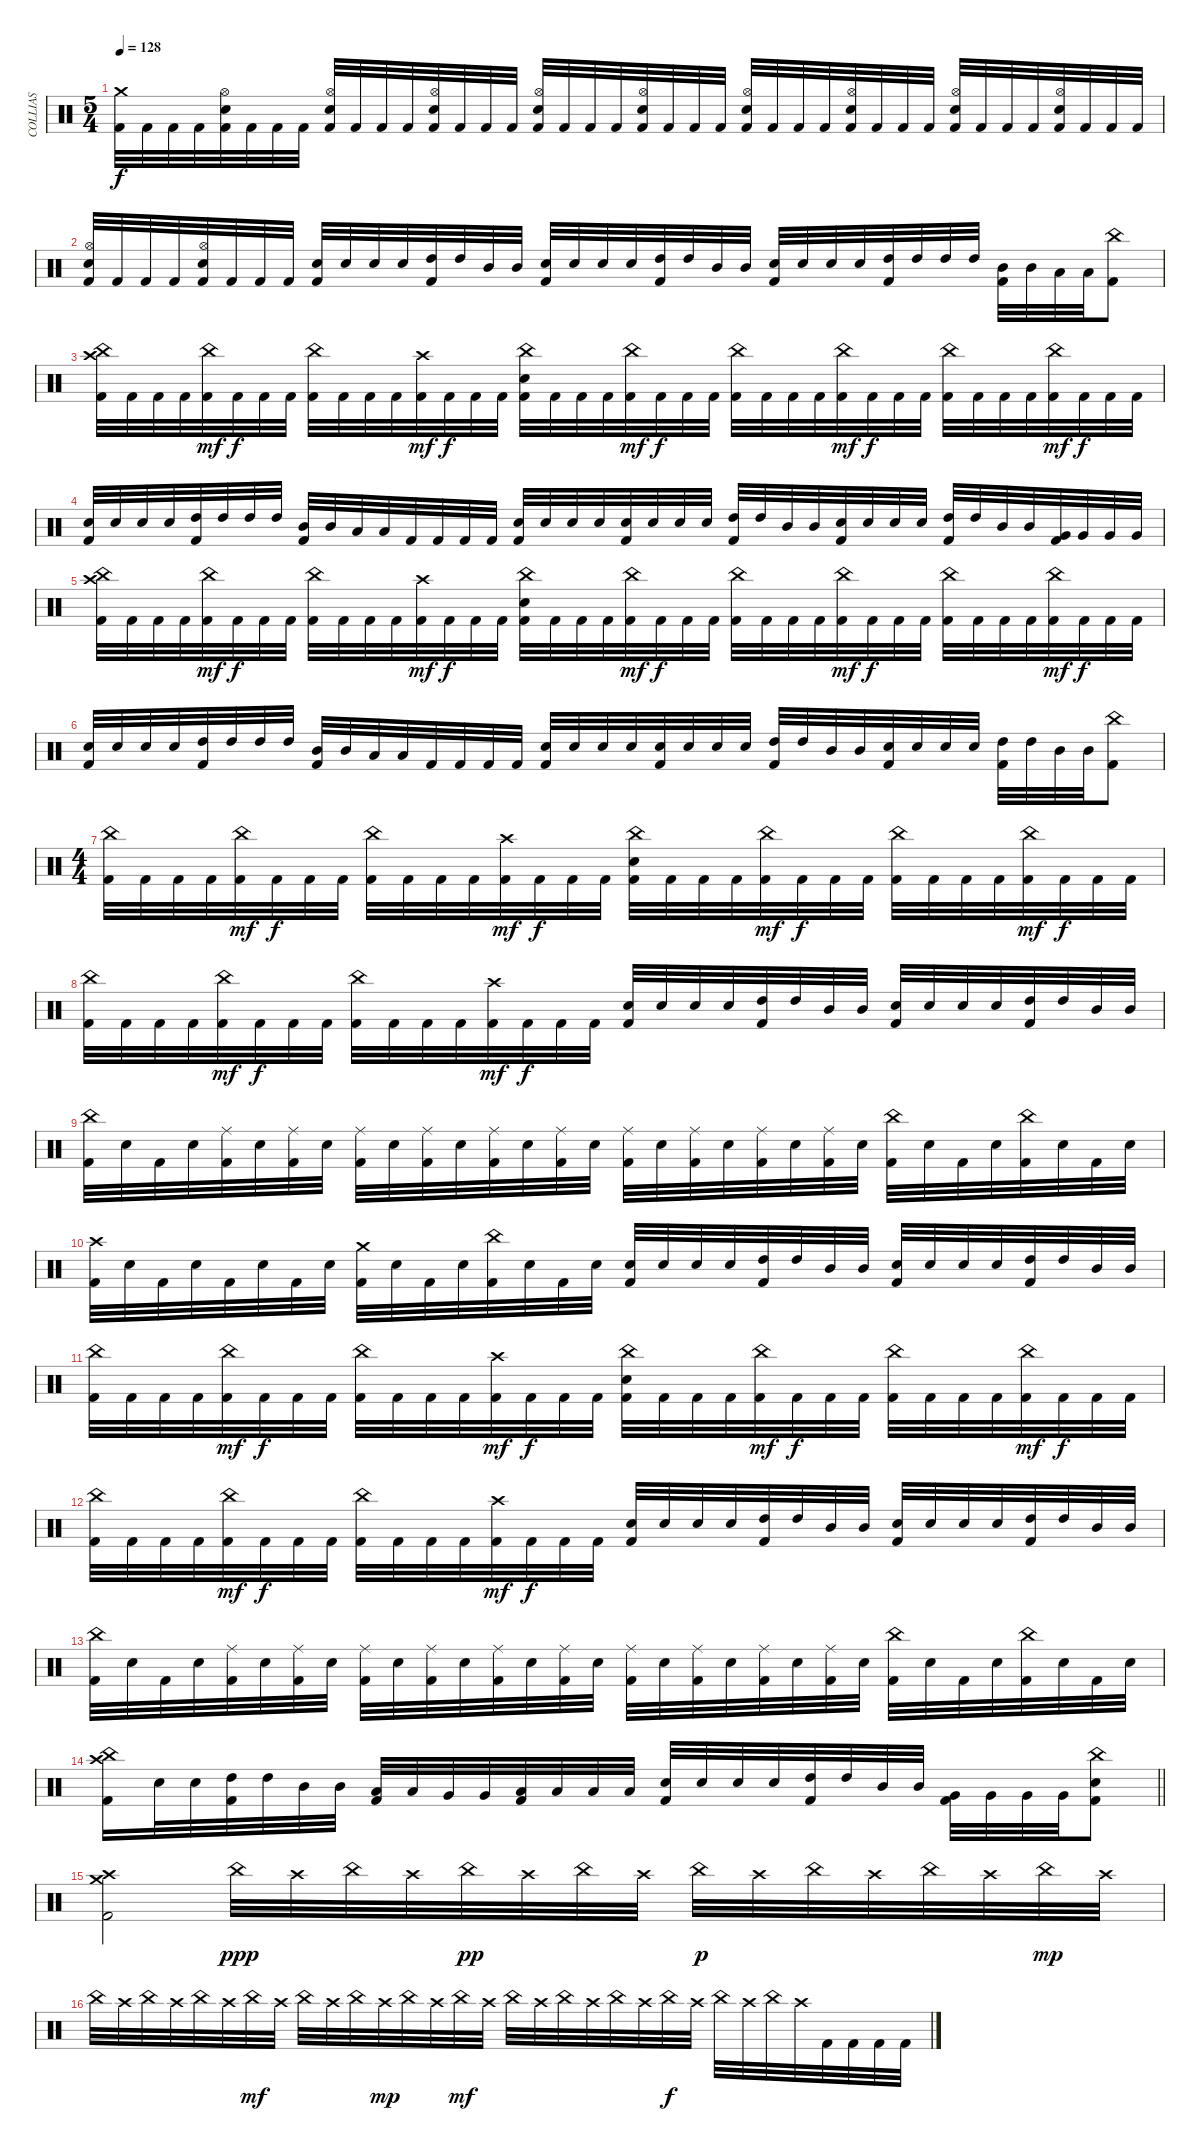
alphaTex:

\track ("COLLIAS" "COLLIAS") {instrument percussion}
\staff
\articulation defaults
\ts (5 4)
\tempo 128
\clef neutral
\ks c
("Crash medium (hit)" "Kick (hit) 2").32{dy f} "Kick (hit) 2".32 "Kick (hit) 2".32 "Kick (hit) 2".32 ("Hi-Hat (open)" "Electric Snare (hit)" "Kick (hit) 2").32 "Kick (hit) 2".32 "Kick (hit) 2".32 "Kick (hit) 2".32 ("Hi-Hat (open)" "Electric Snare (hit)" "Kick (hit) 2").32 "Kick (hit) 2".32 "Kick (hit) 2".32 "Kick (hit) 2".32 ("Hi-Hat (open)" "Electric Snare (hit)" "Kick (hit) 2").32 "Kick (hit) 2".32 "Kick (hit) 2".32 "Kick (hit) 2".32 ("Hi-Hat (open)" "Electric Snare (hit)" "Kick (hit) 2").32 "Kick (hit) 2".32 "Kick (hit) 2".32 "Kick (hit) 2".32 ("Hi-Hat (open)" "Electric Snare (hit)" "Kick (hit) 2").32 "Kick (hit) 2".32 "Kick (hit) 2".32 "Kick (hit) 2".32 ("Hi-Hat (open)" "Electric Snare (hit)" "Kick (hit) 2").32 "Kick (hit) 2".32 "Kick (hit) 2".32 "Kick (hit) 2".32 ("Hi-Hat (open)" "Electric Snare (hit)" "Kick (hit) 2").32 "Kick (hit) 2".32 "Kick (hit) 2".32 "Kick (hit) 2".32 ("Hi-Hat (open)" "Electric Snare (hit)" "Kick (hit) 2").32 "Kick (hit) 2".32 "Kick (hit) 2".32 "Kick (hit) 2".32 ("Hi-Hat (open)" "Electric Snare (hit)" "Kick (hit) 2").32 "Kick (hit) 2".32 "Kick (hit) 2".32 "Kick (hit) 2".32 |
("Hi-Hat (open)" "Electric Snare (hit)" "Kick (hit) 2").32 "Kick (hit) 2".32 "Kick (hit) 2".32 "Kick (hit) 2".32 ("Hi-Hat (open)" "Electric Snare (hit)" "Kick (hit) 2").32 "Kick (hit) 2".32 "Kick (hit) 2".32 "Kick (hit) 2".32 ("Electric Snare (hit)" "Kick (hit) 2").32 "Electric Snare (hit)".32 "Electric Snare (hit)".32 "Electric Snare (hit)".32 ("High Tom (hit)" "Kick (hit) 2").32 "High Tom (hit)".32 "Mid Tom (hit)".32 "Mid Tom (hit)".32 ("Electric Snare (hit)" "Kick (hit) 2").32 "Electric Snare (hit)".32 "Electric Snare (hit)".32 "Electric Snare (hit)".32 ("High Tom (hit)" "Kick (hit) 2").32 "High Tom (hit)".32 "Mid Tom (hit)".32 "Mid Tom (hit)".32 ("Electric Snare (hit)" "Kick (hit) 2").32 "Electric Snare (hit)".32 "Electric Snare (hit)".32 "Electric Snare (hit)".32 ("High Tom (hit)" "Kick (hit) 2").32 "High Tom (hit)".32 "High Tom (hit)".32 "High Tom (hit)".32 ("Mid Tom (hit)" "Kick (hit) 2").32 "Mid Tom (hit)".32 "Low Tom (hit)".32 "Low Tom (hit)".32 ("China (hit)" "Kick (hit) 2").8 |
("China (hit)" "Crash high (hit)" "Kick (hit) 2").32 "Kick (hit) 2".32 "Kick (hit) 2".32 "Kick (hit) 2".32 ("China (hit)" "Kick (hit) 2").32{dy mf} "Kick (hit) 2".32{dy f} "Kick (hit) 2".32 "Kick (hit) 2".32 ("China (hit)" "Kick (hit) 2").32 "Kick (hit) 2".32 "Kick (hit) 2".32 "Kick (hit) 2".32 ("Crash high (hit)" "Kick (hit) 2").32{dy mf} "Kick (hit) 2".32{dy f} "Kick (hit) 2".32 "Kick (hit) 2".32 ("China (hit)" "Electric Snare (hit)" "Kick (hit) 2").32 "Kick (hit) 2".32 "Kick (hit) 2".32 "Kick (hit) 2".32 ("China (hit)" "Kick (hit) 2").32{dy mf} "Kick (hit) 2".32{dy f} "Kick (hit) 2".32 "Kick (hit) 2".32 ("China (hit)" "Kick (hit) 2").32 "Kick (hit) 2".32 "Kick (hit) 2".32 "Kick (hit) 2".32 ("China (hit)" "Kick (hit) 2").32{dy mf} "Kick (hit) 2".32{dy f} "Kick (hit) 2".32 "Kick (hit) 2".32 ("China (hit)" "Kick (hit) 2").32 "Kick (hit) 2".32 "Kick (hit) 2".32 "Kick (hit) 2".32 ("China (hit)" "Kick (hit) 2").32{dy mf} "Kick (hit) 2".32{dy f} "Kick (hit) 2".32 "Kick (hit) 2".32 |
("Electric Snare (hit)" "Kick (hit) 2").32 "Electric Snare (hit)".32 "Electric Snare (hit)".32 "Electric Snare (hit)".32 ("High Tom (hit)" "Kick (hit) 2").32 "High Tom (hit)".32 "High Tom (hit)".32 "High Tom (hit)".32 ("Mid Tom (hit)" "Kick (hit) 2").32 "Mid Tom (hit)".32 "Low Tom (hit)".32 "Low Tom (hit)".32 "Kick (hit) 2".32 "Kick (hit) 2".32 "Kick (hit) 2".32 "Kick (hit) 2".32 ("Electric Snare (hit)" "Kick (hit) 2").32 "Electric Snare (hit)".32 "Electric Snare (hit)".32 "Electric Snare (hit)".32 ("Electric Snare (hit)" "Kick (hit) 2").32 "Electric Snare (hit)".32 "Electric Snare (hit)".32 "Electric Snare (hit)".32 ("High Tom (hit)" "Kick (hit) 2").32 "High Tom (hit)".32 "Mid Tom (hit)".32 "Mid Tom (hit)".32 ("Electric Snare (hit)" "Kick (hit) 2").32 "Electric Snare (hit)".32 "Electric Snare (hit)".32 "Electric Snare (hit)".32 ("High Tom (hit)" "Kick (hit) 2").32 "High Tom (hit)".32 "Mid Tom (hit)".32 "Mid Tom (hit)".32 ("Very Low Tom (hit)" "Kick (hit) 2").32 "Very Low Tom (hit)".32 "Very Low Tom (hit)".32 "Very Low Tom (hit)".32 |
("China (hit)" "Crash high (hit)" "Kick (hit) 2").32 "Kick (hit) 2".32 "Kick (hit) 2".32 "Kick (hit) 2".32 ("China (hit)" "Kick (hit) 2").32{dy mf} "Kick (hit) 2".32{dy f} "Kick (hit) 2".32 "Kick (hit) 2".32 ("China (hit)" "Kick (hit) 2").32 "Kick (hit) 2".32 "Kick (hit) 2".32 "Kick (hit) 2".32 ("Crash high (hit)" "Kick (hit) 2").32{dy mf} "Kick (hit) 2".32{dy f} "Kick (hit) 2".32 "Kick (hit) 2".32 ("China (hit)" "Electric Snare (hit)" "Kick (hit) 2").32 "Kick (hit) 2".32 "Kick (hit) 2".32 "Kick (hit) 2".32 ("China (hit)" "Kick (hit) 2").32{dy mf} "Kick (hit) 2".32{dy f} "Kick (hit) 2".32 "Kick (hit) 2".32 ("China (hit)" "Kick (hit) 2").32 "Kick (hit) 2".32 "Kick (hit) 2".32 "Kick (hit) 2".32 ("China (hit)" "Kick (hit) 2").32{dy mf} "Kick (hit) 2".32{dy f} "Kick (hit) 2".32 "Kick (hit) 2".32 ("China (hit)" "Kick (hit) 2").32 "Kick (hit) 2".32 "Kick (hit) 2".32 "Kick (hit) 2".32 ("China (hit)" "Kick (hit) 2").32{dy mf} "Kick (hit) 2".32{dy f} "Kick (hit) 2".32 "Kick (hit) 2".32 |
("Electric Snare (hit)" "Kick (hit) 2").32 "Electric Snare (hit)".32 "Electric Snare (hit)".32 "Electric Snare (hit)".32 ("High Tom (hit)" "Kick (hit) 2").32 "High Tom (hit)".32 "High Tom (hit)".32 "High Tom (hit)".32 ("Mid Tom (hit)" "Kick (hit) 2").32 "Mid Tom (hit)".32 "Low Tom (hit)".32 "Low Tom (hit)".32 "Kick (hit) 2".32 "Kick (hit) 2".32 "Kick (hit) 2".32 "Kick (hit) 2".32 ("Electric Snare (hit)" "Kick (hit) 2").32 "Electric Snare (hit)".32 "Electric Snare (hit)".32 "Electric Snare (hit)".32 ("Electric Snare (hit)" "Kick (hit) 2").32 "Electric Snare (hit)".32 "Electric Snare (hit)".32 "Electric Snare (hit)".32 ("High Tom (hit)" "Kick (hit) 2").32 "High Tom (hit)".32 "Mid Tom (hit)".32 "Mid Tom (hit)".32 ("Electric Snare (hit)" "Kick (hit) 2").32 "Electric Snare (hit)".32 "Electric Snare (hit)".32 "Electric Snare (hit)".32 ("High Tom (hit)" "Kick (hit) 2").32 "High Tom (hit)".32 "Mid Tom (hit)".32 "Mid Tom (hit)".32 ("China (hit)" "Kick (hit) 2").8 |
\ts (4 4)
("China (hit)" "Kick (hit) 2").32 "Kick (hit) 2".32 "Kick (hit) 2".32 "Kick (hit) 2".32 ("China (hit)" "Kick (hit) 2").32{dy mf} "Kick (hit) 2".32{dy f} "Kick (hit) 2".32 "Kick (hit) 2".32 ("China (hit)" "Kick (hit) 2").32 "Kick (hit) 2".32 "Kick (hit) 2".32 "Kick (hit) 2".32 ("Crash high (hit)" "Kick (hit) 2").32{dy mf} "Kick (hit) 2".32{dy f} "Kick (hit) 2".32 "Kick (hit) 2".32 ("China (hit)" "Electric Snare (hit)" "Kick (hit) 2").32 "Kick (hit) 2".32 "Kick (hit) 2".32 "Kick (hit) 2".32 ("China (hit)" "Kick (hit) 2").32{dy mf} "Kick (hit) 2".32{dy f} "Kick (hit) 2".32 "Kick (hit) 2".32 ("China (hit)" "Kick (hit) 2").32 "Kick (hit) 2".32 "Kick (hit) 2".32 "Kick (hit) 2".32 ("China (hit)" "Kick (hit) 2").32{dy mf} "Kick (hit) 2".32{dy f} "Kick (hit) 2".32 "Kick (hit) 2".32 |
("China (hit)" "Kick (hit) 2").32 "Kick (hit) 2".32 "Kick (hit) 2".32 "Kick (hit) 2".32 ("China (hit)" "Kick (hit) 2").32{dy mf} "Kick (hit) 2".32{dy f} "Kick (hit) 2".32 "Kick (hit) 2".32 ("China (hit)" "Kick (hit) 2").32 "Kick (hit) 2".32 "Kick (hit) 2".32 "Kick (hit) 2".32 ("Crash high (hit)" "Kick (hit) 2").32{dy mf} "Kick (hit) 2".32{dy f} "Kick (hit) 2".32 "Kick (hit) 2".32 ("Electric Snare (hit)" "Kick (hit) 2").32 "Electric Snare (hit)".32 "Electric Snare (hit)".32 "Electric Snare (hit)".32 ("High Tom (hit)" "Kick (hit) 2").32 "High Tom (hit)".32 "Mid Tom (hit)".32 "Mid Tom (hit)".32 ("Electric Snare (hit)" "Kick (hit) 2").32 "Electric Snare (hit)".32 "Electric Snare (hit)".32 "Electric Snare (hit)".32 ("High Tom (hit)" "Kick (hit) 2").32 "High Tom (hit)".32 "Mid Tom (hit)".32 "Mid Tom (hit)".32 |
("China (hit)" "Kick (hit) 2").32 "Electric Snare (hit)".32 "Kick (hit) 2".32 "Electric Snare (hit)".32 ("Ride (middle)" "Kick (hit) 2").32 "Electric Snare (hit)".32 ("Ride (middle)" "Kick (hit) 2").32 "Electric Snare (hit)".32 ("Ride (middle)" "Kick (hit) 2").32 "Electric Snare (hit)".32 ("Ride (middle)" "Kick (hit) 2").32 "Electric Snare (hit)".32 ("Ride (middle)" "Kick (hit) 2").32 "Electric Snare (hit)".32 ("Ride (middle)" "Kick (hit) 2").32 "Electric Snare (hit)".32 ("Ride (middle)" "Kick (hit) 2").32 "Electric Snare (hit)".32 ("Ride (middle)" "Kick (hit) 2").32 "Electric Snare (hit)".32 ("Ride (middle)" "Kick (hit) 2").32 "Electric Snare (hit)".32 ("Ride (middle)" "Kick (hit) 2").32 "Electric Snare (hit)".32 ("China (hit)" "Kick (hit) 2").32 "Electric Snare (hit)".32 "Kick (hit) 2".32 "Electric Snare (hit)".32 ("China (hit)" "Kick (hit) 2").32 "Electric Snare (hit)".32 "Kick (hit) 2".32 "Electric Snare (hit)".32 |
("Crash high (hit)" "Kick (hit) 2").32 "Electric Snare (hit)".32 "Kick (hit) 2".32 "Electric Snare (hit)".32 "Kick (hit) 2".32 "Electric Snare (hit)".32 "Kick (hit) 2".32 "Electric Snare (hit)".32 ("Crash medium (hit)" "Kick (hit) 2").32 "Electric Snare (hit)".32 "Kick (hit) 2".32 "Electric Snare (hit)".32 ("China (hit)" "Kick (hit) 2").32 "Electric Snare (hit)".32 "Kick (hit) 2".32 "Electric Snare (hit)".32 ("Electric Snare (hit)" "Kick (hit) 2").32 "Electric Snare (hit)".32 "Electric Snare (hit)".32 "Electric Snare (hit)".32 ("High Tom (hit)" "Kick (hit) 2").32 "High Tom (hit)".32 "Mid Tom (hit)".32 "Mid Tom (hit)".32 ("Electric Snare (hit)" "Kick (hit) 2").32 "Electric Snare (hit)".32 "Electric Snare (hit)".32 "Electric Snare (hit)".32 ("High Tom (hit)" "Kick (hit) 2").32 "High Tom (hit)".32 "Mid Tom (hit)".32 "Mid Tom (hit)".32 |
("China (hit)" "Kick (hit) 2").32 "Kick (hit) 2".32 "Kick (hit) 2".32 "Kick (hit) 2".32 ("China (hit)" "Kick (hit) 2").32{dy mf} "Kick (hit) 2".32{dy f} "Kick (hit) 2".32 "Kick (hit) 2".32 ("China (hit)" "Kick (hit) 2").32 "Kick (hit) 2".32 "Kick (hit) 2".32 "Kick (hit) 2".32 ("Crash high (hit)" "Kick (hit) 2").32{dy mf} "Kick (hit) 2".32{dy f} "Kick (hit) 2".32 "Kick (hit) 2".32 ("China (hit)" "Electric Snare (hit)" "Kick (hit) 2").32 "Kick (hit) 2".32 "Kick (hit) 2".32 "Kick (hit) 2".32 ("China (hit)" "Kick (hit) 2").32{dy mf} "Kick (hit) 2".32{dy f} "Kick (hit) 2".32 "Kick (hit) 2".32 ("China (hit)" "Kick (hit) 2").32 "Kick (hit) 2".32 "Kick (hit) 2".32 "Kick (hit) 2".32 ("China (hit)" "Kick (hit) 2").32{dy mf} "Kick (hit) 2".32{dy f} "Kick (hit) 2".32 "Kick (hit) 2".32 |
("China (hit)" "Kick (hit) 2").32 "Kick (hit) 2".32 "Kick (hit) 2".32 "Kick (hit) 2".32 ("China (hit)" "Kick (hit) 2").32{dy mf} "Kick (hit) 2".32{dy f} "Kick (hit) 2".32 "Kick (hit) 2".32 ("China (hit)" "Kick (hit) 2").32 "Kick (hit) 2".32 "Kick (hit) 2".32 "Kick (hit) 2".32 ("Crash high (hit)" "Kick (hit) 2").32{dy mf} "Kick (hit) 2".32{dy f} "Kick (hit) 2".32 "Kick (hit) 2".32 ("Electric Snare (hit)" "Kick (hit) 2").32 "Electric Snare (hit)".32 "Electric Snare (hit)".32 "Electric Snare (hit)".32 ("High Tom (hit)" "Kick (hit) 2").32 "High Tom (hit)".32 "Mid Tom (hit)".32 "Mid Tom (hit)".32 ("Electric Snare (hit)" "Kick (hit) 2").32 "Electric Snare (hit)".32 "Electric Snare (hit)".32 "Electric Snare (hit)".32 ("High Tom (hit)" "Kick (hit) 2").32 "High Tom (hit)".32 "Mid Tom (hit)".32 "Mid Tom (hit)".32 |
("China (hit)" "Kick (hit) 2").32 "Electric Snare (hit)".32 "Kick (hit) 2".32 "Electric Snare (hit)".32 ("Ride (middle)" "Kick (hit) 2").32 "Electric Snare (hit)".32 ("Ride (middle)" "Kick (hit) 2").32 "Electric Snare (hit)".32 ("Ride (middle)" "Kick (hit) 2").32 "Electric Snare (hit)".32 ("Ride (middle)" "Kick (hit) 2").32 "Electric Snare (hit)".32 ("Ride (middle)" "Kick (hit) 2").32 "Electric Snare (hit)".32 ("Ride (middle)" "Kick (hit) 2").32 "Electric Snare (hit)".32 ("Ride (middle)" "Kick (hit) 2").32 "Electric Snare (hit)".32 ("Ride (middle)" "Kick (hit) 2").32 "Electric Snare (hit)".32 ("Ride (middle)" "Kick (hit) 2").32 "Electric Snare (hit)".32 ("Ride (middle)" "Kick (hit) 2").32 "Electric Snare (hit)".32 ("China (hit)" "Kick (hit) 2").32 "Electric Snare (hit)".32 "Kick (hit) 2".32 "Electric Snare (hit)".32 ("China (hit)" "Kick (hit) 2").32 "Electric Snare (hit)".32 "Kick (hit) 2".32 "Electric Snare (hit)".32 |
\barLineRight lightlight
("China (hit)" "Crash high (hit)" "Kick (hit) 2").16 "Electric Snare (hit)".32 "Electric Snare (hit)".32 ("High Tom (hit)" "Kick (hit) 2").32 "High Tom (hit)".32 "Mid Tom (hit)".32 "Mid Tom (hit)".32 ("Low Tom (hit)" "Kick (hit) 2").32 "Low Tom (hit)".32 "Very Low Tom (hit)".32 "Very Low Tom (hit)".32 ("Low Floor Tom (hit)" "Kick (hit) 2").32 "Low Floor Tom (hit)".32 "Low Floor Tom (hit)".32 "Low Floor Tom (hit)".32 ("Electric Snare (hit)" "Kick (hit) 2").32 "Electric Snare (hit)".32 "Electric Snare (hit)".32 "Electric Snare (hit)".32 ("High Tom (hit)" "Kick (hit) 2").32 "High Tom (hit)".32 "Mid Tom (hit)".32 "Mid Tom (hit)".32 ("Very Low Tom (hit)" "Kick (hit) 2").32 "Very Low Tom (hit)".32 "Very Low Tom (hit)".32 "Very Low Tom (hit)".32 ("China (hit)" "Electric Snare (hit)" "Kick (hit) 2").8 |
("Crash medium (hit)" "Crash high (hit)" "Kick (hit) 2").2 "China (hit)".32{dy ppp} "Crash high (hit)".32 "China (hit)".32 "Crash high (hit)".32 "China (hit)".32{dy pp} "Crash high (hit)".32 "China (hit)".32 "Crash high (hit)".32 "China (hit)".32{dy p} "Crash high (hit)".32 "China (hit)".32 "Crash high (hit)".32 "China (hit)".32 "Crash high (hit)".32 "China (hit)".32{dy mp} "Crash high (hit)".32 |
"China (hit)".32 "Crash high (hit)".32 "China (hit)".32 "Crash high (hit)".32 "China (hit)".32 "Crash high (hit)".32 "China (hit)".32{dy mf} "Crash high (hit)".32 "China (hit)".32 "Crash high (hit)".32 "China (hit)".32 "Crash high (hit)".32{dy mp} "China (hit)".32 "Crash high (hit)".32 "China (hit)".32{dy mf} "Crash high (hit)".32 "China (hit)".32 "Crash high (hit)".32 "China (hit)".32 "Crash high (hit)".32 "China (hit)".32 "Crash high (hit)".32 "China (hit)".32{dy f} "Crash high (hit)".32 "China (hit)".32 "Crash high (hit)".32 "China (hit)".32 "Crash high (hit)".32 "Kick (hit) 2".32 "Kick (hit) 2".32 "Kick (hit) 2".32 "Kick (hit) 2".32
